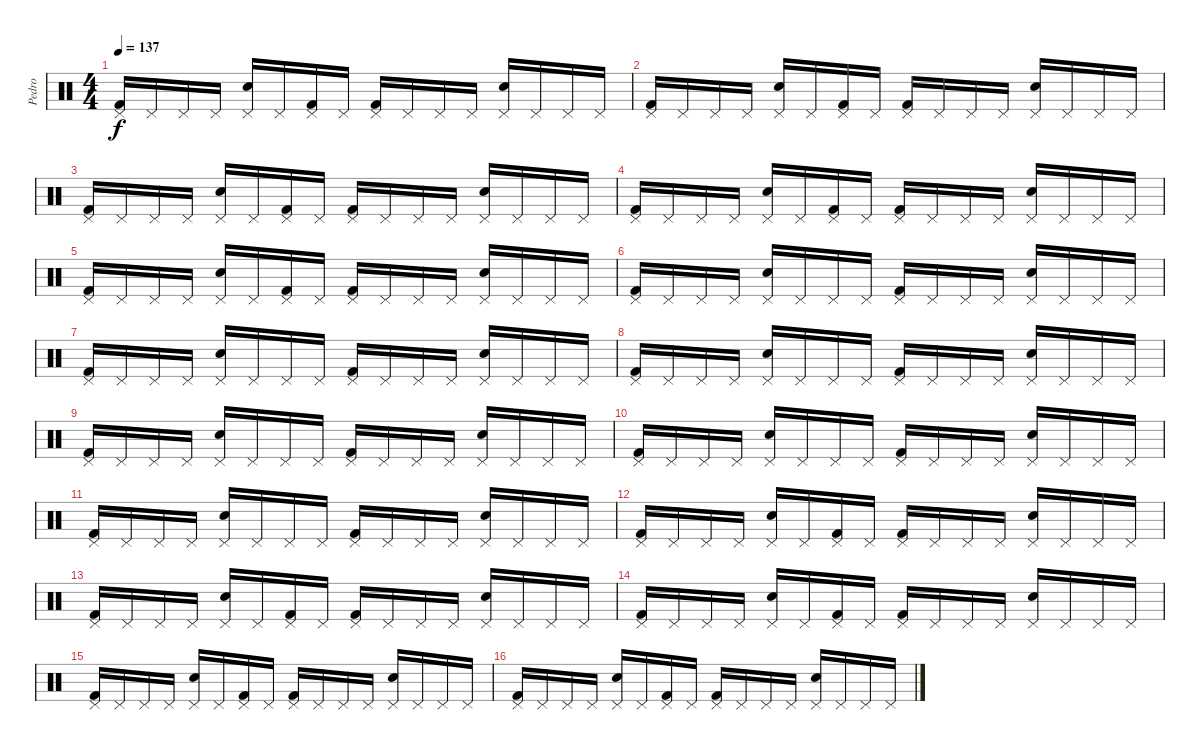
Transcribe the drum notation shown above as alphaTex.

\track ("Pedro" "Pedro") {instrument percussion}
\staff {score}
\articulation defaults
\ts (4 4)
\tempo 137
\clef neutral
\ks c
("Pedal Hi-Hat (hit)" "Kick (hit) 2").16{dy f} "Pedal Hi-Hat (hit)".16 "Pedal Hi-Hat (hit)".16 "Pedal Hi-Hat (hit)".16 ("Pedal Hi-Hat (hit)" "Snare (hit) 2").16 "Pedal Hi-Hat (hit)".16 ("Pedal Hi-Hat (hit)" "Kick (hit) 2").16 "Pedal Hi-Hat (hit)".16 ("Pedal Hi-Hat (hit)" "Kick (hit) 2").16 "Pedal Hi-Hat (hit)".16 "Pedal Hi-Hat (hit)".16 "Pedal Hi-Hat (hit)".16 ("Pedal Hi-Hat (hit)" "Snare (hit) 2").16 "Pedal Hi-Hat (hit)".16 "Pedal Hi-Hat (hit)".16 "Pedal Hi-Hat (hit)".16 |
("Pedal Hi-Hat (hit)" "Kick (hit) 2").16 "Pedal Hi-Hat (hit)".16 "Pedal Hi-Hat (hit)".16 "Pedal Hi-Hat (hit)".16 ("Pedal Hi-Hat (hit)" "Snare (hit) 2").16 "Pedal Hi-Hat (hit)".16 ("Pedal Hi-Hat (hit)" "Kick (hit) 2").16 "Pedal Hi-Hat (hit)".16 ("Pedal Hi-Hat (hit)" "Kick (hit) 2").16 "Pedal Hi-Hat (hit)".16 "Pedal Hi-Hat (hit)".16 "Pedal Hi-Hat (hit)".16 ("Pedal Hi-Hat (hit)" "Snare (hit) 2").16 "Pedal Hi-Hat (hit)".16 "Pedal Hi-Hat (hit)".16 "Pedal Hi-Hat (hit)".16 |
("Pedal Hi-Hat (hit)" "Kick (hit) 2").16 "Pedal Hi-Hat (hit)".16 "Pedal Hi-Hat (hit)".16 "Pedal Hi-Hat (hit)".16 ("Pedal Hi-Hat (hit)" "Snare (hit) 2").16 "Pedal Hi-Hat (hit)".16 ("Pedal Hi-Hat (hit)" "Kick (hit) 2").16 "Pedal Hi-Hat (hit)".16 ("Pedal Hi-Hat (hit)" "Kick (hit) 2").16 "Pedal Hi-Hat (hit)".16 "Pedal Hi-Hat (hit)".16 "Pedal Hi-Hat (hit)".16 ("Pedal Hi-Hat (hit)" "Snare (hit) 2").16 "Pedal Hi-Hat (hit)".16 "Pedal Hi-Hat (hit)".16 "Pedal Hi-Hat (hit)".16 |
("Pedal Hi-Hat (hit)" "Kick (hit) 2").16 "Pedal Hi-Hat (hit)".16 "Pedal Hi-Hat (hit)".16 "Pedal Hi-Hat (hit)".16 ("Pedal Hi-Hat (hit)" "Snare (hit) 2").16 "Pedal Hi-Hat (hit)".16 ("Pedal Hi-Hat (hit)" "Kick (hit) 2").16 "Pedal Hi-Hat (hit)".16 ("Pedal Hi-Hat (hit)" "Kick (hit) 2").16 "Pedal Hi-Hat (hit)".16 "Pedal Hi-Hat (hit)".16 "Pedal Hi-Hat (hit)".16 ("Pedal Hi-Hat (hit)" "Snare (hit) 2").16 "Pedal Hi-Hat (hit)".16 "Pedal Hi-Hat (hit)".16 "Pedal Hi-Hat (hit)".16 |
("Pedal Hi-Hat (hit)" "Kick (hit) 2").16 "Pedal Hi-Hat (hit)".16 "Pedal Hi-Hat (hit)".16 "Pedal Hi-Hat (hit)".16 ("Pedal Hi-Hat (hit)" "Snare (hit) 2").16 "Pedal Hi-Hat (hit)".16 ("Pedal Hi-Hat (hit)" "Kick (hit) 2").16 "Pedal Hi-Hat (hit)".16 ("Pedal Hi-Hat (hit)" "Kick (hit) 2").16 "Pedal Hi-Hat (hit)".16 "Pedal Hi-Hat (hit)".16 "Pedal Hi-Hat (hit)".16 ("Pedal Hi-Hat (hit)" "Snare (hit) 2").16 "Pedal Hi-Hat (hit)".16 "Pedal Hi-Hat (hit)".16 "Pedal Hi-Hat (hit)".16 |
("Pedal Hi-Hat (hit)" "Kick (hit) 2").16 "Pedal Hi-Hat (hit)".16 "Pedal Hi-Hat (hit)".16 "Pedal Hi-Hat (hit)".16 ("Pedal Hi-Hat (hit)" "Snare (hit) 2").16 "Pedal Hi-Hat (hit)".16 "Pedal Hi-Hat (hit)".16 "Pedal Hi-Hat (hit)".16 ("Pedal Hi-Hat (hit)" "Kick (hit) 2").16 "Pedal Hi-Hat (hit)".16 "Pedal Hi-Hat (hit)".16 "Pedal Hi-Hat (hit)".16 ("Pedal Hi-Hat (hit)" "Snare (hit) 2").16 "Pedal Hi-Hat (hit)".16 "Pedal Hi-Hat (hit)".16 "Pedal Hi-Hat (hit)".16 |
("Pedal Hi-Hat (hit)" "Kick (hit) 2").16 "Pedal Hi-Hat (hit)".16 "Pedal Hi-Hat (hit)".16 "Pedal Hi-Hat (hit)".16 ("Pedal Hi-Hat (hit)" "Snare (hit) 2").16 "Pedal Hi-Hat (hit)".16 "Pedal Hi-Hat (hit)".16 "Pedal Hi-Hat (hit)".16 ("Pedal Hi-Hat (hit)" "Kick (hit) 2").16 "Pedal Hi-Hat (hit)".16 "Pedal Hi-Hat (hit)".16 "Pedal Hi-Hat (hit)".16 ("Pedal Hi-Hat (hit)" "Snare (hit) 2").16 "Pedal Hi-Hat (hit)".16 "Pedal Hi-Hat (hit)".16 "Pedal Hi-Hat (hit)".16 |
("Pedal Hi-Hat (hit)" "Kick (hit) 2").16 "Pedal Hi-Hat (hit)".16 "Pedal Hi-Hat (hit)".16 "Pedal Hi-Hat (hit)".16 ("Pedal Hi-Hat (hit)" "Snare (hit) 2").16 "Pedal Hi-Hat (hit)".16 "Pedal Hi-Hat (hit)".16 "Pedal Hi-Hat (hit)".16 ("Pedal Hi-Hat (hit)" "Kick (hit) 2").16 "Pedal Hi-Hat (hit)".16 "Pedal Hi-Hat (hit)".16 "Pedal Hi-Hat (hit)".16 ("Pedal Hi-Hat (hit)" "Snare (hit) 2").16 "Pedal Hi-Hat (hit)".16 "Pedal Hi-Hat (hit)".16 "Pedal Hi-Hat (hit)".16 |
("Pedal Hi-Hat (hit)" "Kick (hit) 2").16 "Pedal Hi-Hat (hit)".16 "Pedal Hi-Hat (hit)".16 "Pedal Hi-Hat (hit)".16 ("Pedal Hi-Hat (hit)" "Snare (hit) 2").16 "Pedal Hi-Hat (hit)".16 "Pedal Hi-Hat (hit)".16 "Pedal Hi-Hat (hit)".16 ("Pedal Hi-Hat (hit)" "Kick (hit) 2").16 "Pedal Hi-Hat (hit)".16 "Pedal Hi-Hat (hit)".16 "Pedal Hi-Hat (hit)".16 ("Pedal Hi-Hat (hit)" "Snare (hit) 2").16 "Pedal Hi-Hat (hit)".16 "Pedal Hi-Hat (hit)".16 "Pedal Hi-Hat (hit)".16 |
("Pedal Hi-Hat (hit)" "Kick (hit) 2").16 "Pedal Hi-Hat (hit)".16 "Pedal Hi-Hat (hit)".16 "Pedal Hi-Hat (hit)".16 ("Pedal Hi-Hat (hit)" "Snare (hit) 2").16 "Pedal Hi-Hat (hit)".16 "Pedal Hi-Hat (hit)".16 "Pedal Hi-Hat (hit)".16 ("Pedal Hi-Hat (hit)" "Kick (hit) 2").16 "Pedal Hi-Hat (hit)".16 "Pedal Hi-Hat (hit)".16 "Pedal Hi-Hat (hit)".16 ("Pedal Hi-Hat (hit)" "Snare (hit) 2").16 "Pedal Hi-Hat (hit)".16 "Pedal Hi-Hat (hit)".16 "Pedal Hi-Hat (hit)".16 |
("Pedal Hi-Hat (hit)" "Kick (hit) 2").16 "Pedal Hi-Hat (hit)".16 "Pedal Hi-Hat (hit)".16 "Pedal Hi-Hat (hit)".16 ("Pedal Hi-Hat (hit)" "Snare (hit) 2").16 "Pedal Hi-Hat (hit)".16 "Pedal Hi-Hat (hit)".16 "Pedal Hi-Hat (hit)".16 ("Pedal Hi-Hat (hit)" "Kick (hit) 2").16 "Pedal Hi-Hat (hit)".16 "Pedal Hi-Hat (hit)".16 "Pedal Hi-Hat (hit)".16 ("Pedal Hi-Hat (hit)" "Snare (hit) 2").16 "Pedal Hi-Hat (hit)".16 "Pedal Hi-Hat (hit)".16 "Pedal Hi-Hat (hit)".16 |
("Pedal Hi-Hat (hit)" "Kick (hit) 2").16 "Pedal Hi-Hat (hit)".16 "Pedal Hi-Hat (hit)".16 "Pedal Hi-Hat (hit)".16 ("Pedal Hi-Hat (hit)" "Snare (hit) 2").16 "Pedal Hi-Hat (hit)".16 ("Pedal Hi-Hat (hit)" "Kick (hit) 2").16 "Pedal Hi-Hat (hit)".16 ("Pedal Hi-Hat (hit)" "Kick (hit) 2").16 "Pedal Hi-Hat (hit)".16 "Pedal Hi-Hat (hit)".16 "Pedal Hi-Hat (hit)".16 ("Pedal Hi-Hat (hit)" "Snare (hit) 2").16 "Pedal Hi-Hat (hit)".16 "Pedal Hi-Hat (hit)".16 "Pedal Hi-Hat (hit)".16 |
("Pedal Hi-Hat (hit)" "Kick (hit) 2").16 "Pedal Hi-Hat (hit)".16 "Pedal Hi-Hat (hit)".16 "Pedal Hi-Hat (hit)".16 ("Pedal Hi-Hat (hit)" "Snare (hit) 2").16 "Pedal Hi-Hat (hit)".16 ("Pedal Hi-Hat (hit)" "Kick (hit) 2").16 "Pedal Hi-Hat (hit)".16 ("Pedal Hi-Hat (hit)" "Kick (hit) 2").16 "Pedal Hi-Hat (hit)".16 "Pedal Hi-Hat (hit)".16 "Pedal Hi-Hat (hit)".16 ("Pedal Hi-Hat (hit)" "Snare (hit) 2").16 "Pedal Hi-Hat (hit)".16 "Pedal Hi-Hat (hit)".16 "Pedal Hi-Hat (hit)".16 |
("Pedal Hi-Hat (hit)" "Kick (hit) 2").16 "Pedal Hi-Hat (hit)".16 "Pedal Hi-Hat (hit)".16 "Pedal Hi-Hat (hit)".16 ("Pedal Hi-Hat (hit)" "Snare (hit) 2").16 "Pedal Hi-Hat (hit)".16 ("Pedal Hi-Hat (hit)" "Kick (hit) 2").16 "Pedal Hi-Hat (hit)".16 ("Pedal Hi-Hat (hit)" "Kick (hit) 2").16 "Pedal Hi-Hat (hit)".16 "Pedal Hi-Hat (hit)".16 "Pedal Hi-Hat (hit)".16 ("Pedal Hi-Hat (hit)" "Snare (hit) 2").16 "Pedal Hi-Hat (hit)".16 "Pedal Hi-Hat (hit)".16 "Pedal Hi-Hat (hit)".16 |
("Pedal Hi-Hat (hit)" "Kick (hit) 2").16 "Pedal Hi-Hat (hit)".16 "Pedal Hi-Hat (hit)".16 "Pedal Hi-Hat (hit)".16 ("Pedal Hi-Hat (hit)" "Snare (hit) 2").16 "Pedal Hi-Hat (hit)".16 ("Pedal Hi-Hat (hit)" "Kick (hit) 2").16 "Pedal Hi-Hat (hit)".16 ("Pedal Hi-Hat (hit)" "Kick (hit) 2").16 "Pedal Hi-Hat (hit)".16 "Pedal Hi-Hat (hit)".16 "Pedal Hi-Hat (hit)".16 ("Pedal Hi-Hat (hit)" "Snare (hit) 2").16 "Pedal Hi-Hat (hit)".16 "Pedal Hi-Hat (hit)".16 "Pedal Hi-Hat (hit)".16 |
("Pedal Hi-Hat (hit)" "Kick (hit) 2").16 "Pedal Hi-Hat (hit)".16 "Pedal Hi-Hat (hit)".16 "Pedal Hi-Hat (hit)".16 ("Pedal Hi-Hat (hit)" "Snare (hit) 2").16 "Pedal Hi-Hat (hit)".16 ("Pedal Hi-Hat (hit)" "Kick (hit) 2").16 "Pedal Hi-Hat (hit)".16 ("Pedal Hi-Hat (hit)" "Kick (hit) 2").16 "Pedal Hi-Hat (hit)".16 "Pedal Hi-Hat (hit)".16 "Pedal Hi-Hat (hit)".16 ("Pedal Hi-Hat (hit)" "Snare (hit) 2").16 "Pedal Hi-Hat (hit)".16 "Pedal Hi-Hat (hit)".16 "Pedal Hi-Hat (hit)".16
